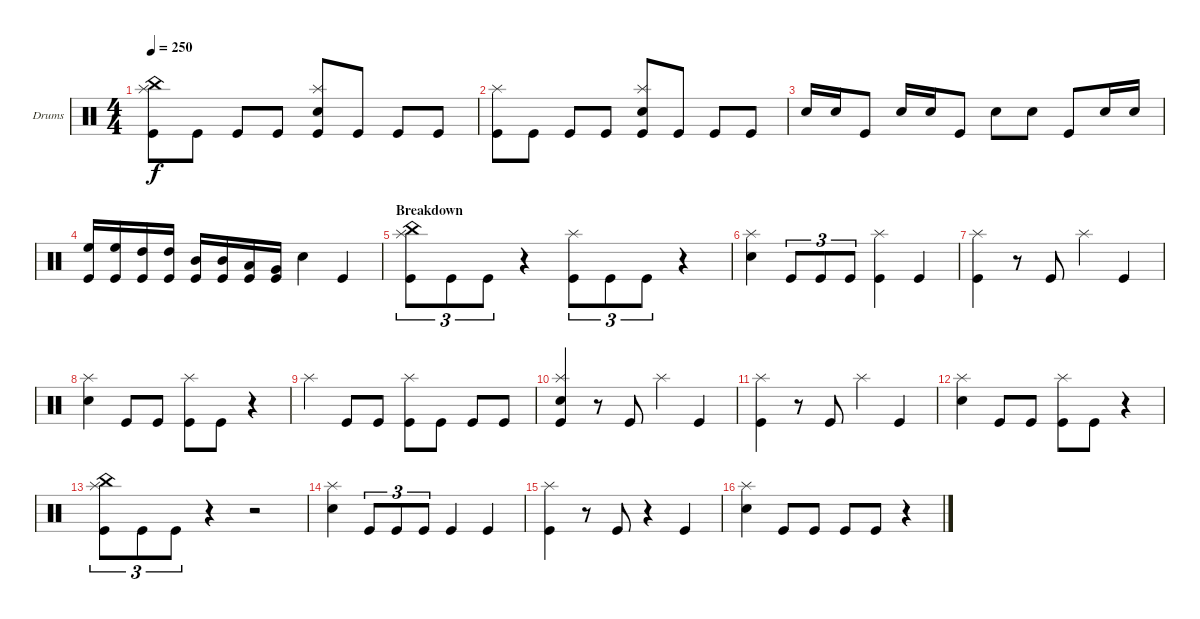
\defaultSystemsLayout 4
\bracketExtendMode groupsimilarinstruments
\firstSystemTrackNameOrientation horizontal
\otherSystemsTrackNameOrientation horizontal
\track ("Drumkit" "Drums") {instrument percussion}
\staff {score}
\articulation defaults
\ts (4 4)
\tempo 250
\clef neutral
\ks c
("Kick (hit)" "Splash (hit)" "China (hit)").8{dy f} "Kick (hit)".8 "Kick (hit)".8 "Kick (hit)".8 ("Kick (hit)" "Splash (hit)" "Snare (hit) 2").8 "Kick (hit)".8 "Kick (hit)".8 "Kick (hit)".8 |
("Kick (hit)" "Splash (hit)").8 "Kick (hit)".8 "Kick (hit)".8 "Kick (hit)".8 ("Kick (hit)" "Splash (hit)" "Snare (hit) 2").8 "Kick (hit)".8 "Kick (hit)".8 "Kick (hit)".8 |
"Snare (hit) 2".16 "Snare (hit) 2".16 "Kick (hit)".8 "Snare (hit) 2".16 "Snare (hit) 2".16 "Kick (hit)".8 "Snare (hit) 2".8 "Snare (hit) 2".8 "Kick (hit)".8 "Snare (hit) 2".16 "Snare (hit) 2".16 |
("Kick (hit)" "High Floor Tom (hit)").16 ("Kick (hit)" "High Floor Tom (hit)").16 ("Kick (hit)" "High Tom (hit)").16 ("Kick (hit)" "High Tom (hit)").16 ("Kick (hit)" "Mid Tom (hit)").16 ("Kick (hit)" "Mid Tom (hit)").16 ("Kick (hit)" "Low Tom (hit)").16 ("Kick (hit)" "Very Low Tom (hit)").16 "Snare (hit) 2".4 "Kick (hit)".4 |
\section ("" "Breakdown")
("Kick (hit)" "China (hit)" "Splash (hit)").8{tu (3 2)} "Kick (hit)".8{tu (3 2)} "Kick (hit)".8{tu (3 2)} r.4 ("Kick (hit)" "Splash (hit)").8{tu (3 2)} "Kick (hit)".8{tu (3 2)} "Kick (hit)".8{tu (3 2)} r.4 |
("Splash (hit)" "Snare (hit) 2").4 "Kick (hit)".8{tu (3 2)} "Kick (hit)".8{tu (3 2)} "Kick (hit)".8{tu (3 2)} ("Kick (hit)" "Splash (hit)").4 "Kick (hit)".4 |
("Splash (hit)" "Kick (hit)").4 r.8 "Kick (hit)".8 "Splash (hit)".4 "Kick (hit)".4 |
("Splash (hit)" "Snare (hit) 2").4 "Kick (hit)".8 "Kick (hit)".8 ("Kick (hit)" "Splash (hit)").8 "Kick (hit)".8 r.4 |
"Splash (hit)".4 "Kick (hit)".8 "Kick (hit)".8 ("Kick (hit)" "Splash (hit)").8 "Kick (hit)".8 "Kick (hit)".8 "Kick (hit)".8 |
("Splash (hit)" "Kick (hit)" "Snare (hit) 2").4 r.8 "Kick (hit)".8 "Splash (hit)".4 "Kick (hit)".4 |
("Splash (hit)" "Kick (hit)").4 r.8 "Kick (hit)".8 "Splash (hit)".4 "Kick (hit)".4 |
("Splash (hit)" "Snare (hit) 2").4 "Kick (hit)".8 "Kick (hit)".8 ("Kick (hit)" "Splash (hit)").8 "Kick (hit)".8 r.4 |
("Kick (hit)" "China (hit)" "Splash (hit)").8{tu (3 2)} "Kick (hit)".8{tu (3 2)} "Kick (hit)".8{tu (3 2)} r.4 r.2 |
("Splash (hit)" "Snare (hit) 2").4 "Kick (hit)".8{tu (3 2)} "Kick (hit)".8{tu (3 2)} "Kick (hit)".8{tu (3 2)} "Kick (hit)".4 "Kick (hit)".4 |
("Splash (hit)" "Kick (hit)").4 r.8 "Kick (hit)".8 r.4 "Kick (hit)".4 |
("Splash (hit)" "Snare (hit) 2").4 "Kick (hit)".8 "Kick (hit)".8 "Kick (hit)".8 "Kick (hit)".8 r.4
